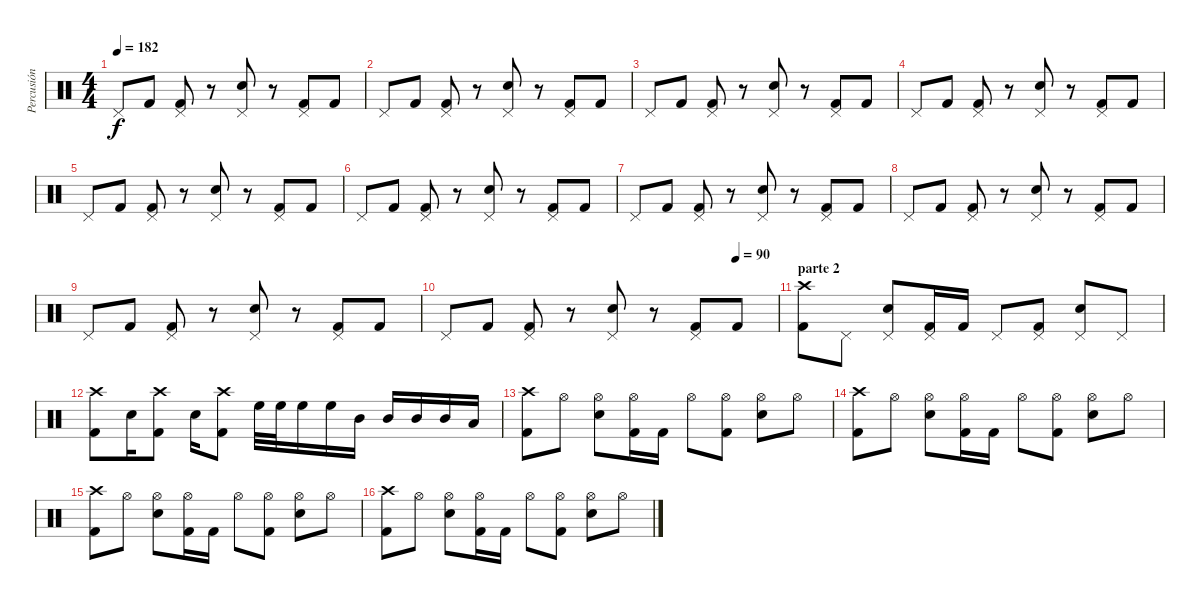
\track ("Percusión" "Percusión") {instrument percussion}
\staff {score}
\articulation defaults
\ts (4 4)
\tempo 182
\clef neutral
\ks c "Pedal Hi-Hat (hit)".8{dy f} "Kick (hit) 2".8
("Pedal Hi-Hat (hit)" "Kick (hit) 2").8 r.8 ("Pedal Hi-Hat (hit)" "Electric Snare (hit)").8 r.8 ("Pedal Hi-Hat (hit)" "Kick (hit) 2").8 "Kick (hit) 2".8 |
"Pedal Hi-Hat (hit)".8 "Kick (hit) 2".8 ("Pedal Hi-Hat (hit)" "Kick (hit) 2").8 r.8 ("Pedal Hi-Hat (hit)" "Electric Snare (hit)").8 r.8 ("Pedal Hi-Hat (hit)" "Kick (hit) 2").8 "Kick (hit) 2".8 |
"Pedal Hi-Hat (hit)".8 "Kick (hit) 2".8 ("Pedal Hi-Hat (hit)" "Kick (hit) 2").8 r.8 ("Pedal Hi-Hat (hit)" "Electric Snare (hit)").8 r.8 ("Pedal Hi-Hat (hit)" "Kick (hit) 2").8 "Kick (hit) 2".8 |
"Pedal Hi-Hat (hit)".8 "Kick (hit) 2".8 ("Pedal Hi-Hat (hit)" "Kick (hit) 2").8 r.8 ("Pedal Hi-Hat (hit)" "Electric Snare (hit)").8 r.8 ("Pedal Hi-Hat (hit)" "Kick (hit) 2").8 "Kick (hit) 2".8 |
"Pedal Hi-Hat (hit)".8 "Kick (hit) 2".8 ("Pedal Hi-Hat (hit)" "Kick (hit) 2").8 r.8 ("Pedal Hi-Hat (hit)" "Electric Snare (hit)").8 r.8 ("Pedal Hi-Hat (hit)" "Kick (hit) 2").8 "Kick (hit) 2".8 |
"Pedal Hi-Hat (hit)".8 "Kick (hit) 2".8 ("Pedal Hi-Hat (hit)" "Kick (hit) 2").8 r.8 ("Pedal Hi-Hat (hit)" "Electric Snare (hit)").8 r.8 ("Pedal Hi-Hat (hit)" "Kick (hit) 2").8 "Kick (hit) 2".8 |
"Pedal Hi-Hat (hit)".8 "Kick (hit) 2".8 ("Pedal Hi-Hat (hit)" "Kick (hit) 2").8 r.8 ("Pedal Hi-Hat (hit)" "Electric Snare (hit)").8 r.8 ("Pedal Hi-Hat (hit)" "Kick (hit) 2").8 "Kick (hit) 2".8 |
"Pedal Hi-Hat (hit)".8 "Kick (hit) 2".8 ("Pedal Hi-Hat (hit)" "Kick (hit) 2").8 r.8 ("Pedal Hi-Hat (hit)" "Electric Snare (hit)").8 r.8 ("Pedal Hi-Hat (hit)" "Kick (hit) 2").8 "Kick (hit) 2".8 |
"Pedal Hi-Hat (hit)".8 "Kick (hit) 2".8 ("Pedal Hi-Hat (hit)" "Kick (hit) 2").8 r.8 ("Pedal Hi-Hat (hit)" "Electric Snare (hit)").8 r.8 ("Pedal Hi-Hat (hit)" "Kick (hit) 2").8 "Kick (hit) 2".8 |
\tempo (90 0.875)
"Pedal Hi-Hat (hit)".8 "Kick (hit) 2".8 ("Pedal Hi-Hat (hit)" "Kick (hit) 2").8 r.8 ("Pedal Hi-Hat (hit)" "Electric Snare (hit)").8 r.8 ("Pedal Hi-Hat (hit)" "Kick (hit) 2").8 "Kick (hit) 2".8 |
\section ("" "parte 2")
("Crash high (hit)" "Kick (hit) 2").8 "Pedal Hi-Hat (hit)".8 ("Pedal Hi-Hat (hit)" "Electric Snare (hit)").8 ("Pedal Hi-Hat (hit)" "Kick (hit) 2").16 "Kick (hit) 2".16 "Pedal Hi-Hat (hit)".8 ("Pedal Hi-Hat (hit)" "Kick (hit) 2").8 ("Pedal Hi-Hat (hit)" "Electric Snare (hit)").8 "Pedal Hi-Hat (hit)".8 |
("Crash high (hit)" "Kick (hit) 2").8 "Electric Snare (hit)".16 ("Crash high (hit)" "Kick (hit) 2").8 "Electric Snare (hit)".16 ("Crash high (hit)" "Kick (hit) 2").8 "High Floor Tom (hit)".32 "High Floor Tom (hit)".32 "High Floor Tom (hit)".16 "High Floor Tom (hit)".16 "Mid Tom (hit)".16 "Mid Tom (hit)".16 "Mid Tom (hit)".16 "Mid Tom (hit)".16 "Low Tom (hit)".16 |
("Crash high (hit)" "Kick (hit) 2").8 "Hi-Hat (open)".8 ("Hi-Hat (open)" "Electric Snare (hit)").8 ("Hi-Hat (open)" "Kick (hit) 2").16 "Kick (hit) 2".16 "Hi-Hat (open)".8 ("Hi-Hat (open)" "Kick (hit) 2").8 ("Hi-Hat (open)" "Electric Snare (hit)").8 "Hi-Hat (open)".8 |
("Crash high (hit)" "Kick (hit) 2").8 "Hi-Hat (open)".8 ("Hi-Hat (open)" "Electric Snare (hit)").8 ("Hi-Hat (open)" "Kick (hit) 2").16 "Kick (hit) 2".16 "Hi-Hat (open)".8 ("Hi-Hat (open)" "Kick (hit) 2").8 ("Hi-Hat (open)" "Electric Snare (hit)").8 "Hi-Hat (open)".8 |
("Crash high (hit)" "Kick (hit) 2").8 "Hi-Hat (open)".8 ("Hi-Hat (open)" "Electric Snare (hit)").8 ("Hi-Hat (open)" "Kick (hit) 2").16 "Kick (hit) 2".16 "Hi-Hat (open)".8 ("Hi-Hat (open)" "Kick (hit) 2").8 ("Hi-Hat (open)" "Electric Snare (hit)").8 "Hi-Hat (open)".8 |
("Crash high (hit)" "Kick (hit) 2").8 "Hi-Hat (open)".8 ("Hi-Hat (open)" "Electric Snare (hit)").8 ("Hi-Hat (open)" "Kick (hit) 2").16 "Kick (hit) 2".16 "Hi-Hat (open)".8 ("Hi-Hat (open)" "Kick (hit) 2").8 ("Hi-Hat (open)" "Electric Snare (hit)").8 "Hi-Hat (open)".8
